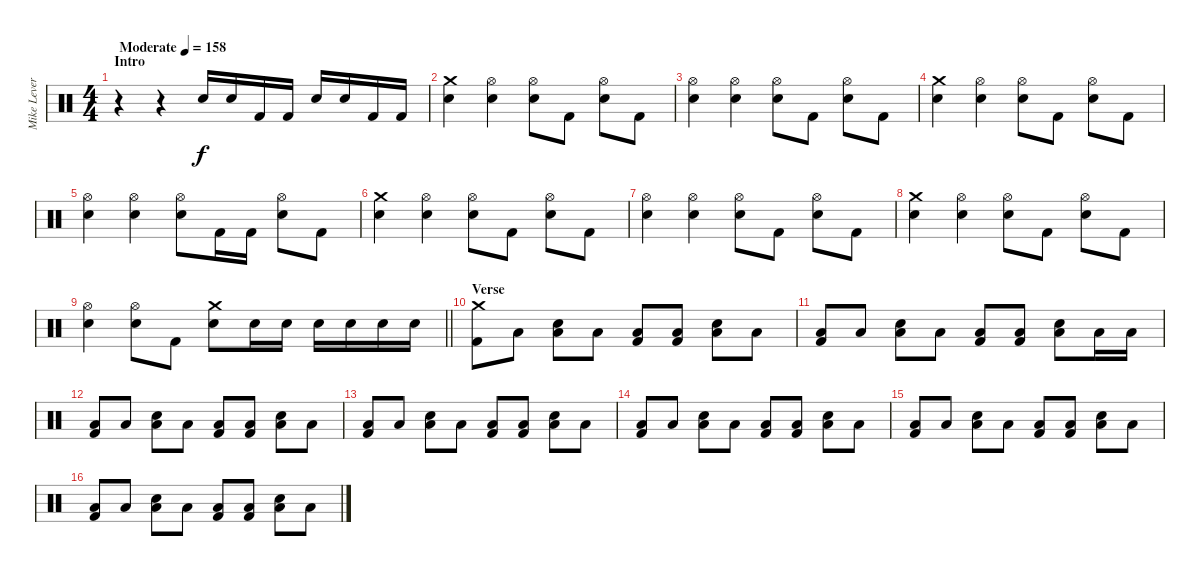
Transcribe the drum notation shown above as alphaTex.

\track ("Mike Leverence - Drums" "Mike Lever") {instrument percussion}
\staff {score}
\articulation defaults
\ts (4 4)
\section ("" "Intro")
\tempo (158 "Moderate")
\clef neutral
\ks c
r.4{dy f} r.4 "Electric Snare (hit)".16 "Electric Snare (hit)".16 "Kick (hit) 2".16 "Kick (hit) 2".16 "Electric Snare (hit)".16 "Electric Snare (hit)".16 "Kick (hit) 2".16 "Kick (hit) 2".16 |
("Crash medium (hit)" "Electric Snare (hit)").4 ("Hi-Hat (open)" "Electric Snare (hit)").4 ("Hi-Hat (open)" "Electric Snare (hit)").8 "Kick (hit) 2".8 ("Hi-Hat (open)" "Electric Snare (hit)").8 "Kick (hit) 2".8 |
("Hi-Hat (open)" "Electric Snare (hit)").4 ("Hi-Hat (open)" "Electric Snare (hit)").4 ("Hi-Hat (open)" "Electric Snare (hit)").8 "Kick (hit) 2".8 ("Hi-Hat (open)" "Electric Snare (hit)").8 "Kick (hit) 2".8 |
("Crash medium (hit)" "Electric Snare (hit)").4 ("Hi-Hat (open)" "Electric Snare (hit)").4 ("Hi-Hat (open)" "Electric Snare (hit)").8 "Kick (hit) 2".8 ("Hi-Hat (open)" "Electric Snare (hit)").8 "Kick (hit) 2".8 |
("Hi-Hat (open)" "Electric Snare (hit)").4 ("Hi-Hat (open)" "Electric Snare (hit)").4 ("Hi-Hat (open)" "Electric Snare (hit)").8 "Kick (hit) 2".16 "Kick (hit) 2".16 ("Hi-Hat (open)" "Electric Snare (hit)").8 "Kick (hit) 2".8 |
("Crash medium (hit)" "Electric Snare (hit)").4 ("Hi-Hat (open)" "Electric Snare (hit)").4 ("Hi-Hat (open)" "Electric Snare (hit)").8 "Kick (hit) 2".8 ("Hi-Hat (open)" "Electric Snare (hit)").8 "Kick (hit) 2".8 |
("Hi-Hat (open)" "Electric Snare (hit)").4 ("Hi-Hat (open)" "Electric Snare (hit)").4 ("Hi-Hat (open)" "Electric Snare (hit)").8 "Kick (hit) 2".8 ("Hi-Hat (open)" "Electric Snare (hit)").8 "Kick (hit) 2".8 |
("Crash medium (hit)" "Electric Snare (hit)").4 ("Hi-Hat (open)" "Electric Snare (hit)").4 ("Hi-Hat (open)" "Electric Snare (hit)").8 "Kick (hit) 2".8 ("Hi-Hat (open)" "Electric Snare (hit)").8 "Kick (hit) 2".8 |
\barLineRight lightlight
("Hi-Hat (open)" "Electric Snare (hit)").4 ("Hi-Hat (open)" "Electric Snare (hit)").8 "Kick (hit) 2".8 ("Crash medium (hit)" "Electric Snare (hit)").8 "Electric Snare (hit)".16 "Electric Snare (hit)".16 "Electric Snare (hit)".16 "Electric Snare (hit)".16 "Electric Snare (hit)".16 "Electric Snare (hit)".16 |
\section ("" "Verse")
("Crash medium (hit)" "Kick (hit) 2").8 "Low Floor Tom (hit)".8 ("Low Floor Tom (hit)" "Electric Snare (hit)").8 "Low Floor Tom (hit)".8 ("Low Floor Tom (hit)" "Kick (hit) 2").8 ("Low Floor Tom (hit)" "Kick (hit) 2").8 ("Low Floor Tom (hit)" "Electric Snare (hit)").8 "Low Floor Tom (hit)".8 |
("Low Floor Tom (hit)" "Kick (hit) 2").8 "Low Floor Tom (hit)".8 ("Low Floor Tom (hit)" "Electric Snare (hit)").8 "Low Floor Tom (hit)".8 ("Low Floor Tom (hit)" "Kick (hit) 2").8 ("Low Floor Tom (hit)" "Kick (hit) 2").8 ("Low Floor Tom (hit)" "Electric Snare (hit)").8 "Low Tom (hit)".16 "Low Tom (hit)".16 |
("Low Floor Tom (hit)" "Kick (hit) 2").8 "Low Floor Tom (hit)".8 ("Low Floor Tom (hit)" "Electric Snare (hit)").8 "Low Floor Tom (hit)".8 ("Low Floor Tom (hit)" "Kick (hit) 2").8 ("Low Floor Tom (hit)" "Kick (hit) 2").8 ("Low Floor Tom (hit)" "Electric Snare (hit)").8 "Low Floor Tom (hit)".8 |
("Low Floor Tom (hit)" "Kick (hit) 2").8 "Low Floor Tom (hit)".8 ("Low Floor Tom (hit)" "Electric Snare (hit)").8 "Low Floor Tom (hit)".8 ("Low Floor Tom (hit)" "Kick (hit) 2").8 ("Low Floor Tom (hit)" "Kick (hit) 2").8 ("Low Floor Tom (hit)" "Electric Snare (hit)").8 "Low Floor Tom (hit)".8 |
("Low Floor Tom (hit)" "Kick (hit) 2").8 "Low Floor Tom (hit)".8 ("Low Floor Tom (hit)" "Electric Snare (hit)").8 "Low Floor Tom (hit)".8 ("Low Floor Tom (hit)" "Kick (hit) 2").8 ("Low Floor Tom (hit)" "Kick (hit) 2").8 ("Low Floor Tom (hit)" "Electric Snare (hit)").8 "Low Floor Tom (hit)".8 |
("Low Floor Tom (hit)" "Kick (hit) 2").8 "Low Floor Tom (hit)".8 ("Low Floor Tom (hit)" "Electric Snare (hit)").8 "Low Floor Tom (hit)".8 ("Low Floor Tom (hit)" "Kick (hit) 2").8 ("Low Floor Tom (hit)" "Kick (hit) 2").8 ("Low Floor Tom (hit)" "Electric Snare (hit)").8 "Low Floor Tom (hit)".8 |
("Low Floor Tom (hit)" "Kick (hit) 2").8 "Low Floor Tom (hit)".8 ("Low Floor Tom (hit)" "Electric Snare (hit)").8 "Low Floor Tom (hit)".8 ("Low Floor Tom (hit)" "Kick (hit) 2").8 ("Low Floor Tom (hit)" "Kick (hit) 2").8 ("Low Floor Tom (hit)" "Electric Snare (hit)").8 "Low Floor Tom (hit)".8
